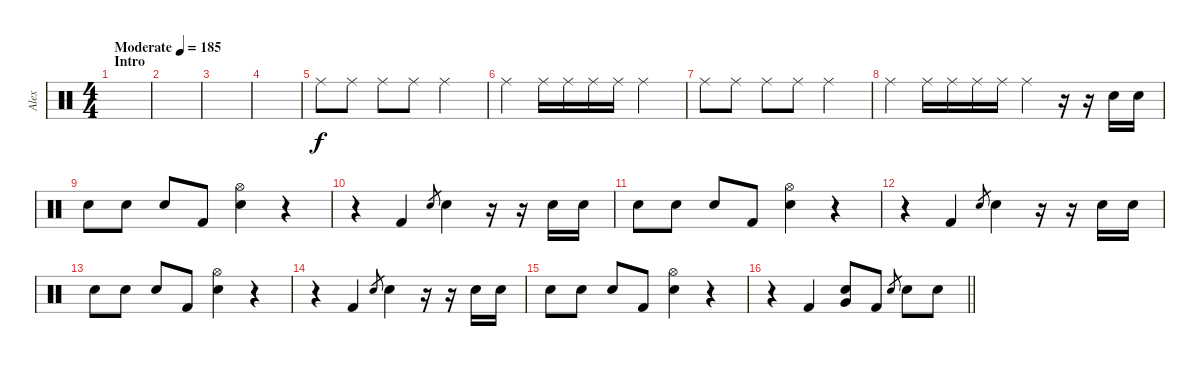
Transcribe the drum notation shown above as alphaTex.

\track ("Alex" "Alex") {instrument percussion}
\staff {score}
\articulation defaults
\ts (4 4)
\section ("" "Intro")
\tempo (185 "Moderate")
\clef neutral
\ks c
|
|
|
|
"Ride (middle)".8 "Ride (middle)".8 "Ride (middle)".8 "Ride (middle)".8 "Ride (middle)".2 |
"Ride (middle)".4 "Ride (middle)".16 "Ride (middle)".16 "Ride (middle)".16 "Ride (middle)".16 "Ride (middle)".2 |
"Ride (middle)".8 "Ride (middle)".8 "Ride (middle)".8 "Ride (middle)".8 "Ride (middle)".2 |
"Ride (middle)".4 "Ride (middle)".16 "Ride (middle)".16 "Ride (middle)".16 "Ride (middle)".16 "Ride (middle)".4 r.16 r.16 "Electric Snare (hit)".16 "Electric Snare (hit)".16 |
"Electric Snare (hit)".8 "Electric Snare (hit)".8 "Electric Snare (hit)".8 "Kick (hit) 2".8 ("Hi-Hat (open)" "Electric Snare (hit)").4 r.4 |
r.4 "Kick (hit) 2".4 "Electric Snare (hit)".8{gr} "Electric Snare (hit)".4 r.16 r.16 "Electric Snare (hit)".16 "Electric Snare (hit)".16 |
"Electric Snare (hit)".8 "Electric Snare (hit)".8 "Electric Snare (hit)".8 "Kick (hit) 2".8 ("Hi-Hat (open)" "Electric Snare (hit)").4 r.4 |
r.4 "Kick (hit) 2".4 "Electric Snare (hit)".8{gr} "Electric Snare (hit)".4 r.16 r.16 "Electric Snare (hit)".16 "Electric Snare (hit)".16 |
"Electric Snare (hit)".8 "Electric Snare (hit)".8 "Electric Snare (hit)".8 "Kick (hit) 2".8 ("Hi-Hat (open)" "Electric Snare (hit)").4 r.4 |
r.4 "Kick (hit) 2".4 "Electric Snare (hit)".8{gr} "Electric Snare (hit)".4 r.16 r.16 "Electric Snare (hit)".16 "Electric Snare (hit)".16 |
"Electric Snare (hit)".8 "Electric Snare (hit)".8 "Electric Snare (hit)".8 "Kick (hit) 2".8 ("Hi-Hat (open)" "Electric Snare (hit)").4 r.4 |
\barLineRight lightlight
r.4 "Kick (hit) 2".4 ("Very Low Tom (hit)" "Electric Snare (hit)").8 "Kick (hit) 2".8 "Electric Snare (hit)".8{gr} "Electric Snare (hit)".8 "Electric Snare (hit)".8
